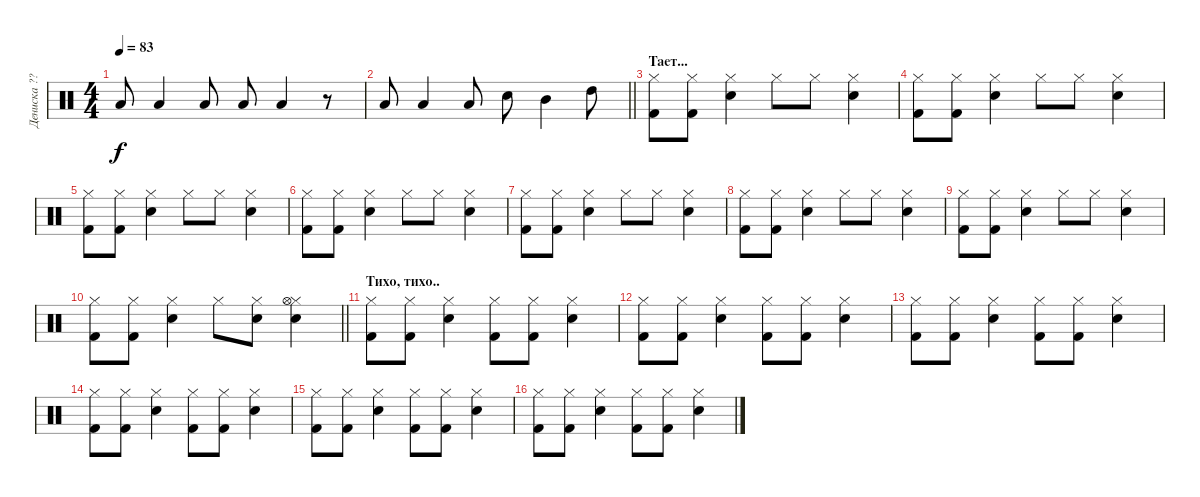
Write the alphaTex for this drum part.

\track ("Дениска ??" "Дениска ??") {instrument percussion}
\staff {score}
\articulation defaults
\ts (4 4)
\tempo 83
\clef neutral
\ks c "Low Tom (hit)".8{dy f} "Low Tom (hit)".4 "Low Tom (hit)".8 "Low Tom (hit)".8 "Low Tom (hit)".4
r.8 |
\barLineRight lightlight "Low Tom (hit)".8 "Low Tom (hit)".4 "Low Tom (hit)".8 "Snare (hit) 2".8 "Mid Tom (hit)".4 "High Tom (hit)".8
|
\section ("" "Тает...")
("Hi-Hat (closed)" "Kick (hit) 2").8 ("Hi-Hat (closed)" "Kick (hit) 2").8 ("Hi-Hat (closed)" "Electric Snare (hit)").4 "Hi-Hat (closed)".8 "Hi-Hat (closed)".8 ("Hi-Hat (closed)" "Electric Snare (hit)").4 |
("Hi-Hat (closed)" "Kick (hit) 2").8 ("Hi-Hat (closed)" "Kick (hit) 2").8 ("Hi-Hat (closed)" "Electric Snare (hit)").4 "Hi-Hat (closed)".8 "Hi-Hat (closed)".8 ("Hi-Hat (closed)" "Electric Snare (hit)").4 |
("Hi-Hat (closed)" "Kick (hit) 2").8 ("Hi-Hat (closed)" "Kick (hit) 2").8 ("Hi-Hat (closed)" "Electric Snare (hit)").4 "Hi-Hat (closed)".8 "Hi-Hat (closed)".8 ("Hi-Hat (closed)" "Electric Snare (hit)").4 |
("Hi-Hat (closed)" "Kick (hit) 2").8 ("Hi-Hat (closed)" "Kick (hit) 2").8 ("Hi-Hat (closed)" "Electric Snare (hit)").4 "Hi-Hat (closed)".8 "Hi-Hat (closed)".8 ("Hi-Hat (closed)" "Electric Snare (hit)").4 |
("Hi-Hat (closed)" "Kick (hit) 2").8 ("Hi-Hat (closed)" "Kick (hit) 2").8 ("Hi-Hat (closed)" "Electric Snare (hit)").4 "Hi-Hat (closed)".8 "Hi-Hat (closed)".8 ("Hi-Hat (closed)" "Electric Snare (hit)").4 |
("Hi-Hat (closed)" "Kick (hit) 2").8 ("Hi-Hat (closed)" "Kick (hit) 2").8 ("Hi-Hat (closed)" "Electric Snare (hit)").4 "Hi-Hat (closed)".8 "Hi-Hat (closed)".8 ("Hi-Hat (closed)" "Electric Snare (hit)").4 |
("Hi-Hat (closed)" "Kick (hit) 2").8 ("Hi-Hat (closed)" "Kick (hit) 2").8 ("Hi-Hat (closed)" "Electric Snare (hit)").4 "Hi-Hat (closed)".8 "Hi-Hat (closed)".8 ("Hi-Hat (closed)" "Electric Snare (hit)").4 |
\barLineRight lightlight
("Hi-Hat (closed)" "Kick (hit) 2").8 ("Hi-Hat (closed)" "Kick (hit) 2").8 ("Hi-Hat (closed)" "Electric Snare (hit)").4 "Hi-Hat (closed)".8 ("Hi-Hat (closed)" "Electric Snare (hit)").8 ("Hi-Hat (closed)" "Hi-Hat (open)" "Snare (hit) 2").4 |
\section ("" "Тихо, тихо..")
("Hi-Hat (closed)" "Kick (hit) 2").8 ("Hi-Hat (closed)" "Kick (hit) 2").8 ("Hi-Hat (closed)" "Electric Snare (hit)").4 ("Hi-Hat (closed)" "Kick (hit) 2").8 ("Hi-Hat (closed)" "Kick (hit) 2").8 ("Hi-Hat (closed)" "Electric Snare (hit)").4 |
("Hi-Hat (closed)" "Kick (hit) 2").8 ("Hi-Hat (closed)" "Kick (hit) 2").8 ("Hi-Hat (closed)" "Electric Snare (hit)").4 ("Hi-Hat (closed)" "Kick (hit) 2").8 ("Hi-Hat (closed)" "Kick (hit) 2").8 ("Hi-Hat (closed)" "Electric Snare (hit)").4 |
("Hi-Hat (closed)" "Kick (hit) 2").8 ("Hi-Hat (closed)" "Kick (hit) 2").8 ("Hi-Hat (closed)" "Electric Snare (hit)").4 ("Hi-Hat (closed)" "Kick (hit) 2").8 ("Hi-Hat (closed)" "Kick (hit) 2").8 ("Hi-Hat (closed)" "Electric Snare (hit)").4 |
("Hi-Hat (closed)" "Kick (hit) 2").8 ("Hi-Hat (closed)" "Kick (hit) 2").8 ("Hi-Hat (closed)" "Electric Snare (hit)").4 ("Hi-Hat (closed)" "Kick (hit) 2").8 ("Hi-Hat (closed)" "Kick (hit) 2").8 ("Hi-Hat (closed)" "Electric Snare (hit)").4 |
("Hi-Hat (closed)" "Kick (hit) 2").8 ("Hi-Hat (closed)" "Kick (hit) 2").8 ("Hi-Hat (closed)" "Electric Snare (hit)").4 ("Hi-Hat (closed)" "Kick (hit) 2").8 ("Hi-Hat (closed)" "Kick (hit) 2").8 ("Hi-Hat (closed)" "Electric Snare (hit)").4 |
("Hi-Hat (closed)" "Kick (hit) 2").8 ("Hi-Hat (closed)" "Kick (hit) 2").8 ("Hi-Hat (closed)" "Electric Snare (hit)").4 ("Hi-Hat (closed)" "Kick (hit) 2").8 ("Hi-Hat (closed)" "Kick (hit) 2").8 ("Hi-Hat (closed)" "Electric Snare (hit)").4
